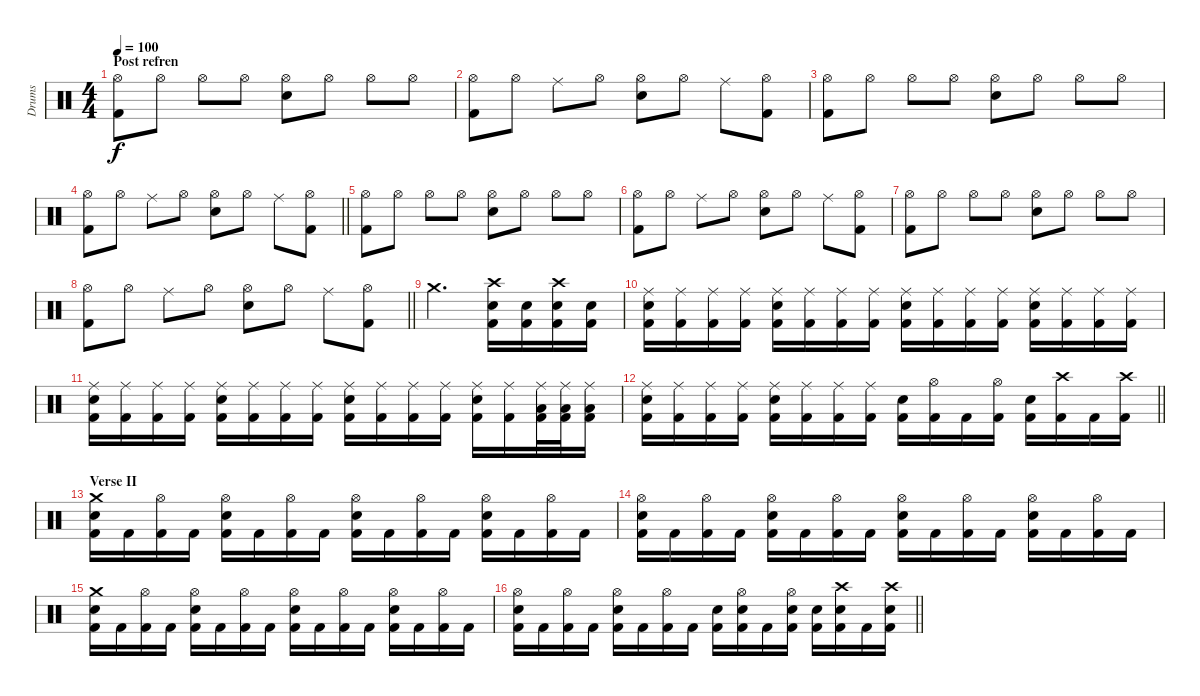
\track ("Drums" "Drums") {instrument percussion}
\staff {score}
\articulation defaults
\ts (4 4)
\section ("" "Post refren")
\tempo 100
\clef neutral
\ks c
("Hi-Hat (open)" "Kick (hit) 2").8{dy f} "Hi-Hat (open)".8 "Hi-Hat (open)".8 "Hi-Hat (open)".8 ("Hi-Hat (open)" "Snare (hit) 2").8 "Hi-Hat (open)".8 "Hi-Hat (open)".8 "Hi-Hat (open)".8 |
("Hi-Hat (open)" "Kick (hit) 2").8 "Hi-Hat (open)".8 "Ride (middle)".8 "Hi-Hat (open)".8 ("Hi-Hat (open)" "Snare (hit) 2").8 "Hi-Hat (open)".8 "Ride (middle)".8 ("Hi-Hat (open)" "Kick (hit) 2").8 |
("Hi-Hat (open)" "Kick (hit) 2").8 "Hi-Hat (open)".8 "Hi-Hat (open)".8 "Hi-Hat (open)".8 ("Hi-Hat (open)" "Snare (hit) 2").8 "Hi-Hat (open)".8 "Hi-Hat (open)".8 "Hi-Hat (open)".8 |
\barLineRight lightlight
("Hi-Hat (open)" "Kick (hit) 2").8 "Hi-Hat (open)".8 "Ride (middle)".8 "Hi-Hat (open)".8 ("Hi-Hat (open)" "Snare (hit) 2").8 "Hi-Hat (open)".8 "Ride (middle)".8 ("Hi-Hat (open)" "Kick (hit) 2").8 |
("Hi-Hat (open)" "Kick (hit) 2").8 "Hi-Hat (open)".8 "Hi-Hat (open)".8 "Hi-Hat (open)".8 ("Hi-Hat (open)" "Snare (hit) 2").8 "Hi-Hat (open)".8 "Hi-Hat (open)".8 "Hi-Hat (open)".8 |
("Hi-Hat (open)" "Kick (hit) 2").8 "Hi-Hat (open)".8 "Ride (middle)".8 "Hi-Hat (open)".8 ("Hi-Hat (open)" "Snare (hit) 2").8 "Hi-Hat (open)".8 "Ride (middle)".8 ("Hi-Hat (open)" "Kick (hit) 2").8 |
("Hi-Hat (open)" "Kick (hit) 2").8 "Hi-Hat (open)".8 "Hi-Hat (open)".8 "Hi-Hat (open)".8 ("Hi-Hat (open)" "Snare (hit) 2").8 "Hi-Hat (open)".8 "Hi-Hat (open)".8 "Hi-Hat (open)".8 |
\barLineRight lightlight
("Hi-Hat (open)" "Kick (hit) 2").8 "Hi-Hat (open)".8 "Ride (middle)".8 "Hi-Hat (open)".8 ("Hi-Hat (open)" "Snare (hit) 2").8 "Hi-Hat (open)".8 "Ride (middle)".8 ("Hi-Hat (open)" "Kick (hit) 2").8 |
"Crash medium (hit)".2{d} ("Crash high (hit)" "Snare (hit) 2" "Kick (hit) 2").16 ("Snare (hit) 2" "Kick (hit) 2").16 ("Crash high (hit)" "Snare (hit) 2" "Kick (hit) 2").16 ("Snare (hit) 2" "Kick (hit) 2").16 |
("Ride (middle)" "Snare (hit) 2" "Kick (hit) 2").16 ("Ride (middle)" "Kick (hit) 2").16 ("Ride (middle)" "Kick (hit) 2").16 ("Ride (middle)" "Kick (hit) 2").16 ("Ride (middle)" "Snare (hit) 2" "Kick (hit) 2").16 ("Ride (middle)" "Kick (hit) 2").16 ("Ride (middle)" "Kick (hit) 2").16 ("Ride (middle)" "Kick (hit) 2").16 ("Ride (middle)" "Snare (hit) 2" "Kick (hit) 2").16 ("Ride (middle)" "Kick (hit) 2").16 ("Ride (middle)" "Kick (hit) 2").16 ("Ride (middle)" "Kick (hit) 2").16 ("Ride (middle)" "Snare (hit) 2" "Kick (hit) 2").16 ("Ride (middle)" "Kick (hit) 2").16 ("Ride (middle)" "Kick (hit) 2").16 ("Ride (middle)" "Kick (hit) 2").16 |
("Ride (middle)" "Snare (hit) 2" "Kick (hit) 2").16 ("Ride (middle)" "Kick (hit) 2").16 ("Ride (middle)" "Kick (hit) 2").16 ("Ride (middle)" "Kick (hit) 2").16 ("Ride (middle)" "Snare (hit) 2" "Kick (hit) 2").16 ("Ride (middle)" "Kick (hit) 2").16 ("Ride (middle)" "Kick (hit) 2").16 ("Ride (middle)" "Kick (hit) 2").16 ("Ride (middle)" "Snare (hit) 2" "Kick (hit) 2").16 ("Ride (middle)" "Kick (hit) 2").16 ("Ride (middle)" "Kick (hit) 2").16 ("Ride (middle)" "Kick (hit) 2").16 ("Ride (middle)" "Snare (hit) 2" "Kick (hit) 2").16 ("Ride (middle)" "Kick (hit) 2").16 ("Ride (middle)" "Low Tom (hit)" "Kick (hit) 2").32 ("Ride (middle)" "Low Tom (hit)" "Kick (hit) 2").32 ("Ride (middle)" "Low Tom (hit)" "Kick (hit) 2").16 |
\barLineRight lightlight
("Ride (middle)" "Snare (hit) 2" "Kick (hit) 2").16 ("Ride (middle)" "Kick (hit) 2").16 ("Ride (middle)" "Kick (hit) 2").16 ("Ride (middle)" "Kick (hit) 2").16 ("Ride (middle)" "Snare (hit) 2" "Kick (hit) 2").16 ("Ride (middle)" "Kick (hit) 2").16 ("Ride (middle)" "Kick (hit) 2").16 ("Ride (middle)" "Kick (hit) 2").16 ("Snare (hit) 2" "Kick (hit) 2").16 ("Hi-Hat (open)" "Kick (hit) 2").16 "Kick (hit) 2".16 ("Hi-Hat (open)" "Kick (hit) 2").16 ("Snare (hit) 2" "Kick (hit) 2").16 ("Crash high (hit)" "Kick (hit) 2").16 "Kick (hit) 2".16 ("Crash high (hit)" "Kick (hit) 2").16 |
\section ("" "Verse II")
("Crash medium (hit)" "Snare (hit) 2" "Kick (hit) 2").16 "Kick (hit) 2".16 ("Hi-Hat (open)" "Kick (hit) 2").16 "Kick (hit) 2".16 ("Hi-Hat (open)" "Snare (hit) 2" "Kick (hit) 2").16 "Kick (hit) 2".16 ("Hi-Hat (open)" "Kick (hit) 2").16 "Kick (hit) 2".16 ("Hi-Hat (open)" "Snare (hit) 2" "Kick (hit) 2").16 "Kick (hit) 2".16 ("Hi-Hat (open)" "Kick (hit) 2").16 "Kick (hit) 2".16 ("Hi-Hat (open)" "Snare (hit) 2" "Kick (hit) 2").16 "Kick (hit) 2".16 ("Hi-Hat (open)" "Kick (hit) 2").16 "Kick (hit) 2".16 |
("Hi-Hat (open)" "Snare (hit) 2" "Kick (hit) 2").16 "Kick (hit) 2".16 ("Hi-Hat (open)" "Kick (hit) 2").16 "Kick (hit) 2".16 ("Hi-Hat (open)" "Snare (hit) 2" "Kick (hit) 2").16 "Kick (hit) 2".16 ("Hi-Hat (open)" "Kick (hit) 2").16 "Kick (hit) 2".16 ("Hi-Hat (open)" "Snare (hit) 2" "Kick (hit) 2").16 "Kick (hit) 2".16 ("Hi-Hat (open)" "Kick (hit) 2").16 "Kick (hit) 2".16 ("Hi-Hat (open)" "Snare (hit) 2" "Kick (hit) 2").16 "Kick (hit) 2".16 ("Hi-Hat (open)" "Kick (hit) 2").16 "Kick (hit) 2".16 |
("Crash medium (hit)" "Snare (hit) 2" "Kick (hit) 2").16 "Kick (hit) 2".16 ("Hi-Hat (open)" "Kick (hit) 2").16 "Kick (hit) 2".16 ("Hi-Hat (open)" "Snare (hit) 2" "Kick (hit) 2").16 "Kick (hit) 2".16 ("Hi-Hat (open)" "Kick (hit) 2").16 "Kick (hit) 2".16 ("Hi-Hat (open)" "Snare (hit) 2" "Kick (hit) 2").16 "Kick (hit) 2".16 ("Hi-Hat (open)" "Kick (hit) 2").16 "Kick (hit) 2".16 ("Hi-Hat (open)" "Snare (hit) 2" "Kick (hit) 2").16 "Kick (hit) 2".16 ("Hi-Hat (open)" "Kick (hit) 2").16 "Kick (hit) 2".16 |
\barLineRight lightlight
("Hi-Hat (open)" "Snare (hit) 2" "Kick (hit) 2").16 "Kick (hit) 2".16 ("Hi-Hat (open)" "Kick (hit) 2").16 "Kick (hit) 2".16 ("Hi-Hat (open)" "Snare (hit) 2" "Kick (hit) 2").16 "Kick (hit) 2".16 ("Hi-Hat (open)" "Kick (hit) 2").16 "Kick (hit) 2".16 ("Snare (hit) 2" "Kick (hit) 2").16 ("Hi-Hat (open)" "Snare (hit) 2" "Kick (hit) 2").16 "Kick (hit) 2".16 ("Hi-Hat (open)" "Snare (hit) 2" "Kick (hit) 2").16 ("Snare (hit) 2" "Kick (hit) 2").16 ("Crash high (hit)" "Snare (hit) 2" "Kick (hit) 2").16 "Kick (hit) 2".16 ("Crash high (hit)" "Snare (hit) 2" "Kick (hit) 2").16
